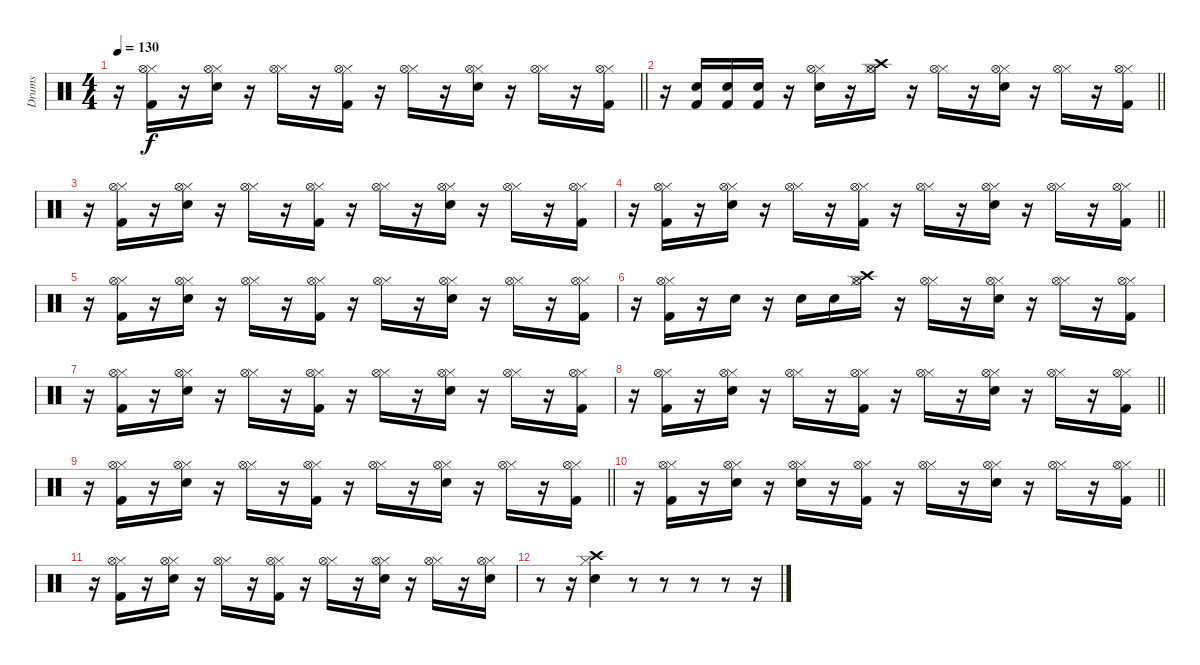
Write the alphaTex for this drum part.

\track ("Drums" "Drums") {instrument percussion}
\staff {score}
\articulation defaults
\ts (4 4)
\tempo 130
\clef neutral
\barLineRight lightlight
\ks c
r.16{dy f} ("Kick (hit) 2" "Hi-Hat (closed)" "Hi-Hat (open)").16 r.16 ("Snare (hit) 2" "Hi-Hat (closed)" "Hi-Hat (open)").16 r.16 ("Hi-Hat (closed)" "Hi-Hat (open)").16 r.16 ("Kick (hit) 2" "Hi-Hat (closed)" "Hi-Hat (open)").16 r.16 ("Hi-Hat (closed)" "Hi-Hat (open)").16 r.16 ("Snare (hit) 2" "Hi-Hat (closed)" "Hi-Hat (open)").16 r.16 ("Hi-Hat (closed)" "Hi-Hat (open)").16 r.16 ("Kick (hit) 2" "Hi-Hat (closed)" "Hi-Hat (open)").16 |
\barLineRight lightlight
r.16 ("Snare (hit) 2" "Kick (hit) 2").16 ("Snare (hit) 2" "Kick (hit) 2").16 ("Snare (hit) 2" "Kick (hit) 2").16 r.16 ("Snare (hit) 2" "Hi-Hat (closed)" "Hi-Hat (open)").16 r.16 ("Crash high (hit)" "Hi-Hat (closed)" "Hi-Hat (open)").16 r.16 ("Hi-Hat (closed)" "Hi-Hat (open)").16 r.16 ("Snare (hit) 2" "Hi-Hat (closed)" "Hi-Hat (open)").16 r.16 ("Hi-Hat (closed)" "Hi-Hat (open)").16 r.16 ("Kick (hit) 2" "Hi-Hat (closed)" "Hi-Hat (open)").16 |
\section ("" "")
r.16 ("Kick (hit) 2" "Hi-Hat (closed)" "Hi-Hat (open)").16 r.16 ("Snare (hit) 2" "Hi-Hat (closed)" "Hi-Hat (open)").16 r.16 ("Hi-Hat (closed)" "Hi-Hat (open)").16 r.16 ("Kick (hit) 2" "Hi-Hat (closed)" "Hi-Hat (open)").16 r.16 ("Hi-Hat (closed)" "Hi-Hat (open)").16 r.16 ("Snare (hit) 2" "Hi-Hat (closed)" "Hi-Hat (open)").16 r.16 ("Hi-Hat (closed)" "Hi-Hat (open)").16 r.16 ("Kick (hit) 2" "Hi-Hat (closed)" "Hi-Hat (open)").16 |
\barLineRight lightlight
r.16 ("Kick (hit) 2" "Hi-Hat (closed)" "Hi-Hat (open)").16 r.16 ("Snare (hit) 2" "Hi-Hat (closed)" "Hi-Hat (open)").16 r.16 ("Hi-Hat (closed)" "Hi-Hat (open)").16 r.16 ("Kick (hit) 2" "Hi-Hat (closed)" "Hi-Hat (open)").16 r.16 ("Hi-Hat (closed)" "Hi-Hat (open)").16 r.16 ("Snare (hit) 2" "Hi-Hat (closed)" "Hi-Hat (open)").16 r.16 ("Hi-Hat (closed)" "Hi-Hat (open)").16 r.16 ("Kick (hit) 2" "Hi-Hat (closed)" "Hi-Hat (open)").16 |
r.16 ("Kick (hit) 2" "Hi-Hat (closed)" "Hi-Hat (open)").16 r.16 ("Snare (hit) 2" "Hi-Hat (closed)" "Hi-Hat (open)").16 r.16 ("Hi-Hat (closed)" "Hi-Hat (open)").16 r.16 ("Kick (hit) 2" "Hi-Hat (closed)" "Hi-Hat (open)").16 r.16 ("Hi-Hat (closed)" "Hi-Hat (open)").16 r.16 ("Snare (hit) 2" "Hi-Hat (closed)" "Hi-Hat (open)").16 r.16 ("Hi-Hat (closed)" "Hi-Hat (open)").16 r.16 ("Kick (hit) 2" "Hi-Hat (closed)" "Hi-Hat (open)").16 |
r.16 ("Kick (hit) 2" "Hi-Hat (closed)" "Hi-Hat (open)").16 r.16 "Snare (hit) 2".16 r.16 "Snare (hit) 2".16 "Snare (hit) 2".16 ("Crash high (hit)" "Hi-Hat (closed)" "Hi-Hat (open)").16 r.16 ("Hi-Hat (closed)" "Hi-Hat (open)").16 r.16 ("Snare (hit) 2" "Hi-Hat (closed)" "Hi-Hat (open)").16 r.16 ("Hi-Hat (closed)" "Hi-Hat (open)").16 r.16 ("Kick (hit) 2" "Hi-Hat (closed)" "Hi-Hat (open)").16 |
r.16 ("Kick (hit) 2" "Hi-Hat (closed)" "Hi-Hat (open)").16 r.16 ("Snare (hit) 2" "Hi-Hat (closed)" "Hi-Hat (open)").16 r.16 ("Hi-Hat (closed)" "Hi-Hat (open)").16 r.16 ("Kick (hit) 2" "Hi-Hat (closed)" "Hi-Hat (open)").16 r.16 ("Hi-Hat (closed)" "Hi-Hat (open)").16 r.16 ("Snare (hit) 2" "Hi-Hat (closed)" "Hi-Hat (open)").16 r.16 ("Hi-Hat (closed)" "Hi-Hat (open)").16 r.16 ("Kick (hit) 2" "Hi-Hat (closed)" "Hi-Hat (open)").16 |
\barLineRight lightlight
r.16 ("Kick (hit) 2" "Hi-Hat (closed)" "Hi-Hat (open)").16 r.16 ("Snare (hit) 2" "Hi-Hat (closed)" "Hi-Hat (open)").16 r.16 ("Hi-Hat (closed)" "Hi-Hat (open)").16 r.16 ("Kick (hit) 2" "Hi-Hat (closed)" "Hi-Hat (open)").16 r.16 ("Hi-Hat (closed)" "Hi-Hat (open)").16 r.16 ("Snare (hit) 2" "Hi-Hat (closed)" "Hi-Hat (open)").16 r.16 ("Hi-Hat (closed)" "Hi-Hat (open)").16 r.16 ("Kick (hit) 2" "Hi-Hat (closed)" "Hi-Hat (open)").16 |
\barLineRight lightlight
r.16 ("Kick (hit) 2" "Hi-Hat (closed)" "Hi-Hat (open)").16 r.16 ("Snare (hit) 2" "Hi-Hat (closed)" "Hi-Hat (open)").16 r.16 ("Hi-Hat (closed)" "Hi-Hat (open)").16 r.16 ("Kick (hit) 2" "Hi-Hat (closed)" "Hi-Hat (open)").16 r.16 ("Hi-Hat (closed)" "Hi-Hat (open)").16 r.16 ("Snare (hit) 2" "Hi-Hat (closed)" "Hi-Hat (open)").16 r.16 ("Hi-Hat (closed)" "Hi-Hat (open)").16 r.16 ("Kick (hit) 2" "Hi-Hat (closed)" "Hi-Hat (open)").16 |
\barLineRight lightlight
r.16 ("Kick (hit) 2" "Hi-Hat (closed)" "Hi-Hat (open)").16 r.16 ("Snare (hit) 2" "Hi-Hat (closed)" "Hi-Hat (open)").16 r.16 ("Snare (hit) 2" "Hi-Hat (closed)" "Hi-Hat (open)").16 r.16 ("Kick (hit) 2" "Hi-Hat (closed)" "Hi-Hat (open)").16 r.16 ("Hi-Hat (closed)" "Hi-Hat (open)").16 r.16 ("Snare (hit) 2" "Hi-Hat (closed)" "Hi-Hat (open)").16 r.16 ("Hi-Hat (closed)" "Hi-Hat (open)").16 r.16 ("Kick (hit) 2" "Hi-Hat (closed)" "Hi-Hat (open)").16 |
\section ("" "")
r.16 ("Kick (hit) 2" "Hi-Hat (closed)" "Hi-Hat (open)").16 r.16 ("Snare (hit) 2" "Hi-Hat (closed)" "Hi-Hat (open)").16 r.16 ("Hi-Hat (closed)" "Hi-Hat (open)").16 r.16 ("Kick (hit) 2" "Hi-Hat (closed)" "Hi-Hat (open)").16 r.16 ("Hi-Hat (closed)" "Hi-Hat (open)").16 r.16 ("Snare (hit) 2" "Hi-Hat (closed)" "Hi-Hat (open)").16 r.16 ("Hi-Hat (closed)" "Hi-Hat (open)").16 r.16 ("Snare (hit) 2" "Hi-Hat (closed)" "Hi-Hat (open)").16 |
r.8 r.16 ("Snare (hit) 2" "Crash high (hit)" "Hi-Hat (closed)").4 r.8 r.8 r.8 r.8 r.16
